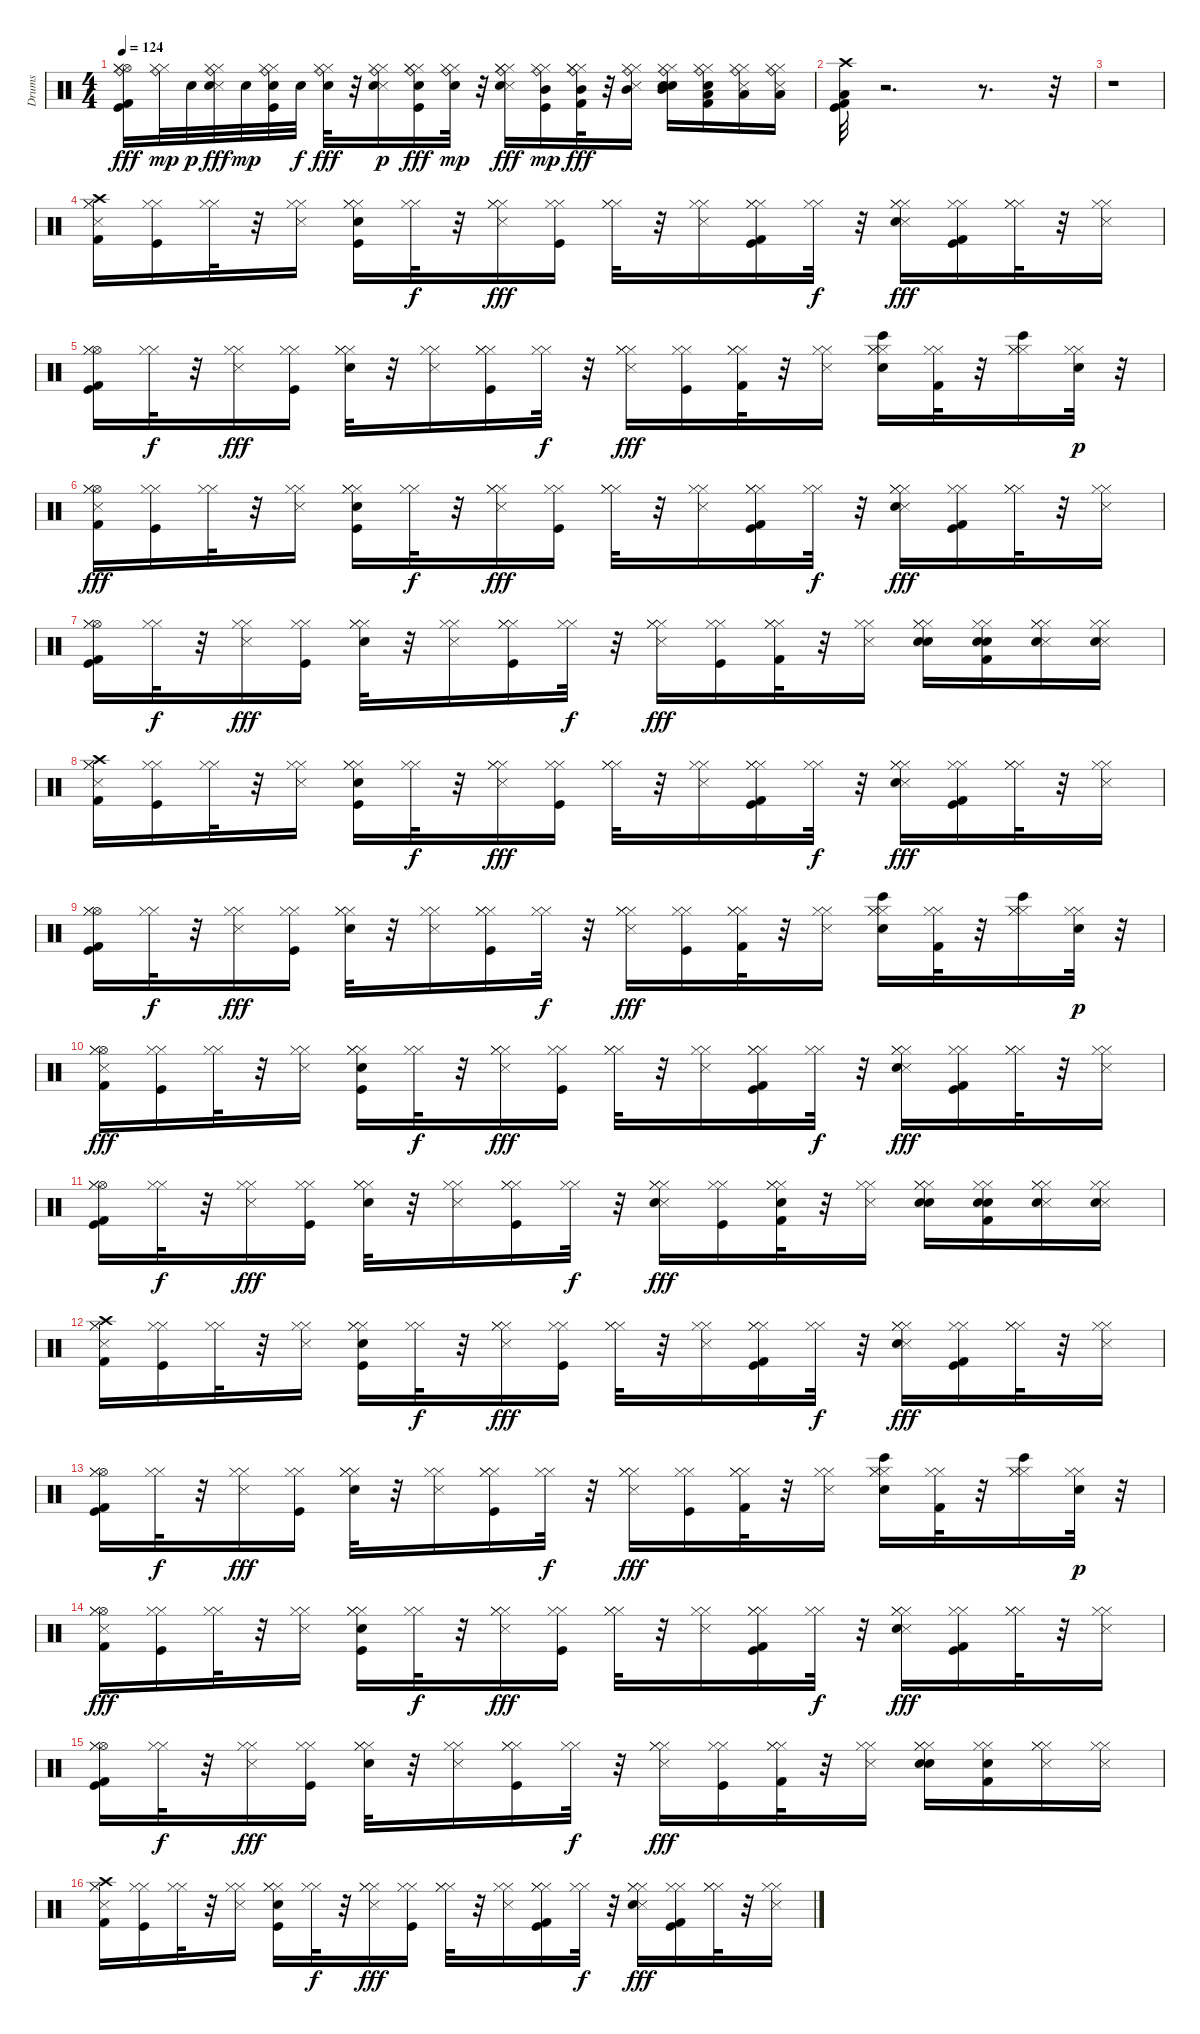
\track ("Drums" "Drums") {instrument percussion}
\staff {score}
\articulation defaults
\ts (4 4)
\tempo 124
\clef neutral
\ks c
("Kick (hit)" "Ride (bell)" "Kick (hit) 2" "Hi-Hat (open)" "Hi-Hat (closed)" "Hi-Hat (closed)").16{dy fff} ("Ride (bell)" "Hi-Hat (closed)" "Hi-Hat (closed)").32{dy mp} "Electric Snare (hit)".32{dy p} ("Metronome (hit)" "Electric Snare (hit)" "Ride (bell)" "Hi-Hat (closed)" "Hi-Hat (closed)").32{dy fff} "Electric Snare (hit)".32{dy mp} ("Kick (hit)" "Electric Snare (hit)" "Ride (bell)" "Hi-Hat (closed)" "Hi-Hat (closed)").32 "Electric Snare (hit)".32{dy f} ("Electric Snare (hit)" "Ride (bell)" "Hi-Hat (closed)" "Hi-Hat (closed)").32{dy fff} r.32 ("Metronome (hit)" "Electric Snare (hit)" "Ride (bell)" "Hi-Hat (closed)" "Hi-Hat (closed)").16{dy p} ("Kick (hit)" "Electric Snare (hit)" "Hi-Hat (closed)" "Ride (bell)" "Hi-Hat (closed)" "Hi-Hat (closed)").16{dy fff} ("Electric Snare (hit)" "Ride (bell)" "Hi-Hat (closed)" "Hi-Hat (closed)").32{dy mp} r.32 ("Metronome (hit)" "Electric Snare (hit)" "Hi-Hat (closed)" "Ride (bell)" "Hi-Hat (closed)" "Hi-Hat (closed)").16{dy fff} ("Kick (hit)" "Mid Tom (hit)" "Ride (bell)" "Hi-Hat (closed)" "Hi-Hat (closed)").16{dy mp} ("Mid Tom (hit)" "Hi-Hat (closed)" "Ride (bell)" "Kick (hit) 2" "Hi-Hat (closed)" "Hi-Hat (closed)").32{dy fff} r.32 ("Metronome (hit)" "Mid Tom (hit)" "Ride (bell)" "Hi-Hat (closed)" "Hi-Hat (closed)").16 ("Hand Clap (hit)" "Mid Tom (hit)" "Hi-Hat (closed)" "Ride (bell)" "Electric Snare (hit)" "Hi-Hat (closed)").16 ("Hand Clap (hit)" "Low Tom (hit)" "Ride (bell)" "Kick (hit) 2" "Hi-Hat (closed)" "Hi-Hat (closed)").16 ("Snare (side stick) 3" "Low Tom (hit)" "Ride (bell)" "Hi-Hat (closed)" "Hi-Hat (closed)").16 ("Snare (side stick) 3" "Low Tom (hit)" "Ride (bell)" "Hi-Hat (closed)" "Hi-Hat (closed)").16 |
("Kick (hit)" "Crash high (hit)" "Kick (hit) 2" "Low Tom (hit)").32 r.2{d} r.8{d} r.32 |
r.1 |
("Metronome (hit)" "Crash high (hit)" "Kick (hit) 2" "Hi-Hat (closed)" "Hi-Hat (closed)").16 ("Kick (hit)" "Hi-Hat (closed)" "Hi-Hat (closed)").16 ("Hi-Hat (closed)" "Hi-Hat (closed)").32 r.32 ("Metronome (hit)" "Hi-Hat (closed)" "Hi-Hat (closed)").16 ("Kick (hit)" "Hi-Hat (closed)" "Electric Snare (hit)" "Hi-Hat (closed)" "Hi-Hat (closed)").16 ("Hi-Hat (closed)" "Hi-Hat (closed)").32{dy f} r.32 ("Metronome (hit)" "Hi-Hat (closed)" "Hi-Hat (closed)" "Hi-Hat (closed)").16{dy fff} ("Kick (hit)" "Hi-Hat (closed)" "Hi-Hat (closed)").16 ("Hi-Hat (closed)" "Hi-Hat (closed)" "Hi-Hat (closed)").32 r.32 ("Metronome (hit)" "Hi-Hat (closed)" "Hi-Hat (closed)").16 ("Kick (hit)" "Hi-Hat (closed)" "Kick (hit) 2" "Hi-Hat (closed)" "Hi-Hat (closed)").16 ("Hi-Hat (closed)" "Hi-Hat (closed)").32{dy f} r.32 ("Metronome (hit)" "Hi-Hat (closed)" "Electric Snare (hit)" "Hi-Hat (closed)" "Hi-Hat (closed)").16{dy fff} ("Kick (hit)" "Kick (hit) 2" "Hi-Hat (closed)" "Hi-Hat (closed)").16 ("Hi-Hat (closed)" "Hi-Hat (closed)" "Hi-Hat (closed)").32 r.32 ("Metronome (hit)" "Hi-Hat (closed)" "Hi-Hat (closed)").16 |
("Kick (hit)" "Hi-Hat (open)" "Kick (hit) 2" "Hi-Hat (closed)" "Hi-Hat (closed)").16 ("Hi-Hat (closed)" "Hi-Hat (closed)").32{dy f} r.32 ("Metronome (hit)" "Hi-Hat (closed)" "Hi-Hat (closed)").16{dy fff} ("Kick (hit)" "Hi-Hat (closed)" "Hi-Hat (closed)").16 ("Electric Snare (hit)" "Hi-Hat (closed)" "Hi-Hat (closed)" "Hi-Hat (closed)").32 r.32 ("Metronome (hit)" "Hi-Hat (closed)" "Hi-Hat (closed)").16 ("Kick (hit)" "Hi-Hat (closed)" "Hi-Hat (closed)" "Hi-Hat (closed)").16 ("Hi-Hat (closed)" "Hi-Hat (closed)").32{dy f} r.32 ("Metronome (hit)" "Hi-Hat (closed)" "Hi-Hat (closed)" "Hi-Hat (closed)").16{dy fff} ("Kick (hit)" "Hi-Hat (closed)" "Hi-Hat (closed)").16 ("Hi-Hat (closed)" "Kick (hit) 2" "Hi-Hat (closed)" "Hi-Hat (closed)").32 r.32 ("Metronome (hit)" "Hi-Hat (closed)" "Hi-Hat (closed)").16 ("Bongo High (hit)" "Electric Snare (hit)" "Hi-Hat (closed)" "Hi-Hat (closed)" "Hi-Hat (closed)").16 ("Kick (hit) 2" "Hi-Hat (closed)" "Hi-Hat (closed)").32 r.32 ("Bongo High (hit)" "Hi-Hat (closed)" "Hi-Hat (closed)" "Hi-Hat (closed)").16 ("Hi-Hat (closed)" "Hi-Hat (closed)" "Electric Snare (hit)").32{dy p} r.32 |
("Metronome (hit)" "Kick (hit) 2" "Hi-Hat (open)" "Hi-Hat (closed)" "Hi-Hat (closed)").16{dy fff} ("Kick (hit)" "Hi-Hat (closed)" "Hi-Hat (closed)").16 ("Hi-Hat (closed)" "Hi-Hat (closed)").32 r.32 ("Metronome (hit)" "Hi-Hat (closed)" "Hi-Hat (closed)").16 ("Kick (hit)" "Electric Snare (hit)" "Hi-Hat (closed)" "Hi-Hat (closed)" "Hi-Hat (closed)").16 ("Hi-Hat (closed)" "Hi-Hat (closed)").32{dy f} r.32 ("Metronome (hit)" "Hi-Hat (closed)" "Hi-Hat (closed)" "Hi-Hat (closed)").16{dy fff} ("Kick (hit)" "Hi-Hat (closed)" "Hi-Hat (closed)").16 ("Hi-Hat (closed)" "Hi-Hat (closed)" "Hi-Hat (closed)").32 r.32 ("Metronome (hit)" "Hi-Hat (closed)" "Hi-Hat (closed)").16 ("Kick (hit)" "Kick (hit) 2" "Hi-Hat (closed)" "Hi-Hat (closed)" "Hi-Hat (closed)").16 ("Hi-Hat (closed)" "Hi-Hat (closed)").32{dy f} r.32 ("Metronome (hit)" "Electric Snare (hit)" "Hi-Hat (closed)" "Hi-Hat (closed)" "Hi-Hat (closed)").16{dy fff} ("Kick (hit)" "Kick (hit) 2" "Hi-Hat (closed)" "Hi-Hat (closed)").16 ("Hi-Hat (closed)" "Hi-Hat (closed)" "Hi-Hat (closed)").32 r.32 ("Metronome (hit)" "Hi-Hat (closed)" "Hi-Hat (closed)").16 |
("Kick (hit)" "Kick (hit) 2" "Hi-Hat (open)" "Hi-Hat (closed)" "Hi-Hat (closed)").16 ("Hi-Hat (closed)" "Hi-Hat (closed)").32{dy f} r.32 ("Metronome (hit)" "Hi-Hat (closed)" "Hi-Hat (closed)").16{dy fff} ("Kick (hit)" "Hi-Hat (closed)" "Hi-Hat (closed)").16 ("Hi-Hat (closed)" "Electric Snare (hit)" "Hi-Hat (closed)" "Hi-Hat (closed)").32 r.32 ("Metronome (hit)" "Hi-Hat (closed)" "Hi-Hat (closed)").16 ("Kick (hit)" "Hi-Hat (closed)" "Hi-Hat (closed)" "Hi-Hat (closed)").16 ("Hi-Hat (closed)" "Hi-Hat (closed)").32{dy f} r.32 ("Metronome (hit)" "Hi-Hat (closed)" "Hi-Hat (closed)" "Hi-Hat (closed)").16{dy fff} ("Kick (hit)" "Hi-Hat (closed)" "Hi-Hat (closed)").16 ("Kick (hit) 2" "Hi-Hat (closed)" "Hi-Hat (closed)" "Hi-Hat (closed)").32 r.32 ("Metronome (hit)" "Hi-Hat (closed)" "Hi-Hat (closed)").16 ("Hand Clap (hit)" "Hi-Hat (closed)" "Electric Snare (hit)" "Hi-Hat (closed)" "Hi-Hat (closed)").16 ("Hand Clap (hit)" "Electric Snare (hit)" "Kick (hit) 2" "Hi-Hat (closed)" "Hi-Hat (closed)").16 ("Snare (side stick) 3" "Electric Snare (hit)" "Hi-Hat (closed)" "Hi-Hat (closed)" "Hi-Hat (closed)").16 ("Snare (side stick) 3" "Electric Snare (hit)" "Hi-Hat (closed)" "Hi-Hat (closed)").16 |
("Metronome (hit)" "Crash high (hit)" "Kick (hit) 2" "Hi-Hat (closed)" "Hi-Hat (closed)").16 ("Kick (hit)" "Hi-Hat (closed)" "Hi-Hat (closed)").16 ("Hi-Hat (closed)" "Hi-Hat (closed)").32 r.32 ("Metronome (hit)" "Hi-Hat (closed)" "Hi-Hat (closed)").16 ("Kick (hit)" "Hi-Hat (closed)" "Electric Snare (hit)" "Hi-Hat (closed)" "Hi-Hat (closed)").16 ("Hi-Hat (closed)" "Hi-Hat (closed)").32{dy f} r.32 ("Metronome (hit)" "Hi-Hat (closed)" "Hi-Hat (closed)" "Hi-Hat (closed)").16{dy fff} ("Kick (hit)" "Hi-Hat (closed)" "Hi-Hat (closed)").16 ("Hi-Hat (closed)" "Hi-Hat (closed)" "Hi-Hat (closed)").32 r.32 ("Metronome (hit)" "Hi-Hat (closed)" "Hi-Hat (closed)").16 ("Kick (hit)" "Hi-Hat (closed)" "Kick (hit) 2" "Hi-Hat (closed)" "Hi-Hat (closed)").16 ("Hi-Hat (closed)" "Hi-Hat (closed)").32{dy f} r.32 ("Metronome (hit)" "Hi-Hat (closed)" "Electric Snare (hit)" "Hi-Hat (closed)" "Hi-Hat (closed)").16{dy fff} ("Kick (hit)" "Kick (hit) 2" "Hi-Hat (closed)" "Hi-Hat (closed)").16 ("Hi-Hat (closed)" "Hi-Hat (closed)" "Hi-Hat (closed)").32 r.32 ("Metronome (hit)" "Hi-Hat (closed)" "Hi-Hat (closed)").16 |
("Kick (hit)" "Hi-Hat (open)" "Kick (hit) 2" "Hi-Hat (closed)" "Hi-Hat (closed)").16 ("Hi-Hat (closed)" "Hi-Hat (closed)").32{dy f} r.32 ("Metronome (hit)" "Hi-Hat (closed)" "Hi-Hat (closed)").16{dy fff} ("Kick (hit)" "Hi-Hat (closed)" "Hi-Hat (closed)").16 ("Electric Snare (hit)" "Hi-Hat (closed)" "Hi-Hat (closed)" "Hi-Hat (closed)").32 r.32 ("Metronome (hit)" "Hi-Hat (closed)" "Hi-Hat (closed)").16 ("Kick (hit)" "Hi-Hat (closed)" "Hi-Hat (closed)" "Hi-Hat (closed)").16 ("Hi-Hat (closed)" "Hi-Hat (closed)").32{dy f} r.32 ("Metronome (hit)" "Hi-Hat (closed)" "Hi-Hat (closed)" "Hi-Hat (closed)").16{dy fff} ("Kick (hit)" "Hi-Hat (closed)" "Hi-Hat (closed)").16 ("Hi-Hat (closed)" "Kick (hit) 2" "Hi-Hat (closed)" "Hi-Hat (closed)").32 r.32 ("Metronome (hit)" "Hi-Hat (closed)" "Hi-Hat (closed)").16 ("Bongo High (hit)" "Electric Snare (hit)" "Hi-Hat (closed)" "Hi-Hat (closed)" "Hi-Hat (closed)").16 ("Kick (hit) 2" "Hi-Hat (closed)" "Hi-Hat (closed)").32 r.32 ("Bongo High (hit)" "Hi-Hat (closed)" "Hi-Hat (closed)" "Hi-Hat (closed)").16 ("Hi-Hat (closed)" "Hi-Hat (closed)" "Electric Snare (hit)").32{dy p} r.32 |
("Metronome (hit)" "Kick (hit) 2" "Hi-Hat (open)" "Hi-Hat (closed)" "Hi-Hat (closed)").16{dy fff} ("Kick (hit)" "Hi-Hat (closed)" "Hi-Hat (closed)").16 ("Hi-Hat (closed)" "Hi-Hat (closed)").32 r.32 ("Metronome (hit)" "Hi-Hat (closed)" "Hi-Hat (closed)").16 ("Kick (hit)" "Electric Snare (hit)" "Hi-Hat (closed)" "Hi-Hat (closed)" "Hi-Hat (closed)").16 ("Hi-Hat (closed)" "Hi-Hat (closed)").32{dy f} r.32 ("Metronome (hit)" "Hi-Hat (closed)" "Hi-Hat (closed)" "Hi-Hat (closed)").16{dy fff} ("Kick (hit)" "Hi-Hat (closed)" "Hi-Hat (closed)").16 ("Hi-Hat (closed)" "Hi-Hat (closed)" "Hi-Hat (closed)").32 r.32 ("Metronome (hit)" "Hi-Hat (closed)" "Hi-Hat (closed)").16 ("Kick (hit)" "Kick (hit) 2" "Hi-Hat (closed)" "Hi-Hat (closed)" "Hi-Hat (closed)").16 ("Hi-Hat (closed)" "Hi-Hat (closed)").32{dy f} r.32 ("Metronome (hit)" "Electric Snare (hit)" "Hi-Hat (closed)" "Hi-Hat (closed)" "Hi-Hat (closed)").16{dy fff} ("Kick (hit)" "Kick (hit) 2" "Hi-Hat (closed)" "Hi-Hat (closed)").16 ("Hi-Hat (closed)" "Hi-Hat (closed)" "Hi-Hat (closed)").32 r.32 ("Metronome (hit)" "Hi-Hat (closed)" "Hi-Hat (closed)").16 |
("Kick (hit)" "Kick (hit) 2" "Hi-Hat (open)" "Hi-Hat (closed)" "Hi-Hat (closed)").16 ("Hi-Hat (closed)" "Hi-Hat (closed)").32{dy f} r.32 ("Metronome (hit)" "Hi-Hat (closed)" "Hi-Hat (closed)").16{dy fff} ("Kick (hit)" "Hi-Hat (closed)" "Hi-Hat (closed)").16 ("Hi-Hat (closed)" "Electric Snare (hit)" "Hi-Hat (closed)" "Hi-Hat (closed)").32 r.32 ("Metronome (hit)" "Hi-Hat (closed)" "Hi-Hat (closed)").16 ("Kick (hit)" "Hi-Hat (closed)" "Hi-Hat (closed)" "Hi-Hat (closed)").16 ("Hi-Hat (closed)" "Hi-Hat (closed)").32{dy f} r.32 ("Metronome (hit)" "Electric Snare (hit)" "Hi-Hat (closed)" "Hi-Hat (closed)" "Hi-Hat (closed)").16{dy fff} ("Kick (hit)" "Hi-Hat (closed)" "Hi-Hat (closed)").16 ("Electric Snare (hit)" "Kick (hit) 2" "Hi-Hat (closed)" "Hi-Hat (closed)" "Hi-Hat (closed)").32 r.32 ("Metronome (hit)" "Hi-Hat (closed)" "Hi-Hat (closed)").16 ("Hand Clap (hit)" "Hi-Hat (closed)" "Electric Snare (hit)" "Hi-Hat (closed)" "Hi-Hat (closed)").16 ("Hand Clap (hit)" "Electric Snare (hit)" "Kick (hit) 2" "Hi-Hat (closed)" "Hi-Hat (closed)").16 ("Snare (side stick) 3" "Electric Snare (hit)" "Hi-Hat (closed)" "Hi-Hat (closed)" "Hi-Hat (closed)").16 ("Snare (side stick) 3" "Electric Snare (hit)" "Hi-Hat (closed)" "Hi-Hat (closed)").16 |
("Metronome (hit)" "Crash high (hit)" "Kick (hit) 2" "Hi-Hat (closed)" "Hi-Hat (closed)").16 ("Kick (hit)" "Hi-Hat (closed)" "Hi-Hat (closed)").16 ("Hi-Hat (closed)" "Hi-Hat (closed)").32 r.32 ("Metronome (hit)" "Hi-Hat (closed)" "Hi-Hat (closed)").16 ("Kick (hit)" "Hi-Hat (closed)" "Electric Snare (hit)" "Hi-Hat (closed)" "Hi-Hat (closed)").16 ("Hi-Hat (closed)" "Hi-Hat (closed)").32{dy f} r.32 ("Metronome (hit)" "Hi-Hat (closed)" "Hi-Hat (closed)" "Hi-Hat (closed)").16{dy fff} ("Kick (hit)" "Hi-Hat (closed)" "Hi-Hat (closed)").16 ("Hi-Hat (closed)" "Hi-Hat (closed)" "Hi-Hat (closed)").32 r.32 ("Metronome (hit)" "Hi-Hat (closed)" "Hi-Hat (closed)").16 ("Kick (hit)" "Hi-Hat (closed)" "Kick (hit) 2" "Hi-Hat (closed)" "Hi-Hat (closed)").16 ("Hi-Hat (closed)" "Hi-Hat (closed)").32{dy f} r.32 ("Metronome (hit)" "Hi-Hat (closed)" "Electric Snare (hit)" "Hi-Hat (closed)" "Hi-Hat (closed)").16{dy fff} ("Kick (hit)" "Kick (hit) 2" "Hi-Hat (closed)" "Hi-Hat (closed)").16 ("Hi-Hat (closed)" "Hi-Hat (closed)" "Hi-Hat (closed)").32 r.32 ("Metronome (hit)" "Hi-Hat (closed)" "Hi-Hat (closed)").16 |
("Kick (hit)" "Hi-Hat (open)" "Kick (hit) 2" "Hi-Hat (closed)" "Hi-Hat (closed)").16 ("Hi-Hat (closed)" "Hi-Hat (closed)").32{dy f} r.32 ("Metronome (hit)" "Hi-Hat (closed)" "Hi-Hat (closed)").16{dy fff} ("Kick (hit)" "Hi-Hat (closed)" "Hi-Hat (closed)").16 ("Electric Snare (hit)" "Hi-Hat (closed)" "Hi-Hat (closed)" "Hi-Hat (closed)").32 r.32 ("Metronome (hit)" "Hi-Hat (closed)" "Hi-Hat (closed)").16 ("Kick (hit)" "Hi-Hat (closed)" "Hi-Hat (closed)" "Hi-Hat (closed)").16 ("Hi-Hat (closed)" "Hi-Hat (closed)").32{dy f} r.32 ("Metronome (hit)" "Hi-Hat (closed)" "Hi-Hat (closed)" "Hi-Hat (closed)").16{dy fff} ("Kick (hit)" "Hi-Hat (closed)" "Hi-Hat (closed)").16 ("Hi-Hat (closed)" "Kick (hit) 2" "Hi-Hat (closed)" "Hi-Hat (closed)").32 r.32 ("Metronome (hit)" "Hi-Hat (closed)" "Hi-Hat (closed)").16 ("Bongo High (hit)" "Electric Snare (hit)" "Hi-Hat (closed)" "Hi-Hat (closed)" "Hi-Hat (closed)").16 ("Kick (hit) 2" "Hi-Hat (closed)" "Hi-Hat (closed)").32 r.32 ("Bongo High (hit)" "Hi-Hat (closed)" "Hi-Hat (closed)" "Hi-Hat (closed)").16 ("Hi-Hat (closed)" "Hi-Hat (closed)" "Electric Snare (hit)").32{dy p} r.32 |
("Metronome (hit)" "Kick (hit) 2" "Hi-Hat (open)" "Hi-Hat (closed)" "Hi-Hat (closed)").16{dy fff} ("Kick (hit)" "Hi-Hat (closed)" "Hi-Hat (closed)").16 ("Hi-Hat (closed)" "Hi-Hat (closed)").32 r.32 ("Metronome (hit)" "Hi-Hat (closed)" "Hi-Hat (closed)").16 ("Kick (hit)" "Electric Snare (hit)" "Hi-Hat (closed)" "Hi-Hat (closed)" "Hi-Hat (closed)").16 ("Hi-Hat (closed)" "Hi-Hat (closed)").32{dy f} r.32 ("Metronome (hit)" "Hi-Hat (closed)" "Hi-Hat (closed)" "Hi-Hat (closed)").16{dy fff} ("Kick (hit)" "Hi-Hat (closed)" "Hi-Hat (closed)").16 ("Hi-Hat (closed)" "Hi-Hat (closed)" "Hi-Hat (closed)").32 r.32 ("Metronome (hit)" "Hi-Hat (closed)" "Hi-Hat (closed)").16 ("Kick (hit)" "Kick (hit) 2" "Hi-Hat (closed)" "Hi-Hat (closed)" "Hi-Hat (closed)").16 ("Hi-Hat (closed)" "Hi-Hat (closed)").32{dy f} r.32 ("Metronome (hit)" "Electric Snare (hit)" "Hi-Hat (closed)" "Hi-Hat (closed)" "Hi-Hat (closed)").16{dy fff} ("Kick (hit)" "Kick (hit) 2" "Hi-Hat (closed)" "Hi-Hat (closed)").16 ("Hi-Hat (closed)" "Hi-Hat (closed)" "Hi-Hat (closed)").32 r.32 ("Metronome (hit)" "Hi-Hat (closed)" "Hi-Hat (closed)").16 |
("Kick (hit)" "Hi-Hat (open)" "Kick (hit) 2" "Hi-Hat (closed)" "Hi-Hat (closed)").16 ("Hi-Hat (closed)" "Hi-Hat (closed)").32{dy f} r.32 ("Metronome (hit)" "Hi-Hat (closed)" "Hi-Hat (closed)").16{dy fff} ("Kick (hit)" "Hi-Hat (closed)" "Hi-Hat (closed)").16 ("Hi-Hat (closed)" "Electric Snare (hit)" "Hi-Hat (closed)" "Hi-Hat (closed)").32 r.32 ("Metronome (hit)" "Hi-Hat (closed)" "Hi-Hat (closed)").16 ("Kick (hit)" "Hi-Hat (closed)" "Hi-Hat (closed)" "Hi-Hat (closed)").16 ("Hi-Hat (closed)" "Hi-Hat (closed)").32{dy f} r.32 ("Metronome (hit)" "Hi-Hat (closed)" "Hi-Hat (closed)" "Hi-Hat (closed)").16{dy fff} ("Kick (hit)" "Hi-Hat (closed)" "Hi-Hat (closed)").16 ("Kick (hit) 2" "Hi-Hat (closed)" "Hi-Hat (closed)" "Hi-Hat (closed)").32 r.32 ("Metronome (hit)" "Hi-Hat (closed)" "Hi-Hat (closed)").16 ("Hand Clap (hit)" "Hi-Hat (closed)" "Electric Snare (hit)" "Hi-Hat (closed)" "Hi-Hat (closed)").16 ("Hand Clap (hit)" "Kick (hit) 2" "Hi-Hat (closed)" "Hi-Hat (closed)").16 ("Snare (side stick) 3" "Hi-Hat (closed)" "Hi-Hat (closed)" "Hi-Hat (closed)").16 ("Snare (side stick) 3" "Hi-Hat (closed)" "Hi-Hat (closed)").16 |
("Metronome (hit)" "Crash high (hit)" "Kick (hit) 2" "Hi-Hat (closed)" "Hi-Hat (closed)").16 ("Kick (hit)" "Hi-Hat (closed)" "Hi-Hat (closed)").16 ("Hi-Hat (closed)" "Hi-Hat (closed)").32 r.32 ("Metronome (hit)" "Hi-Hat (closed)" "Hi-Hat (closed)").16 ("Kick (hit)" "Hi-Hat (closed)" "Electric Snare (hit)" "Hi-Hat (closed)" "Hi-Hat (closed)").16 ("Hi-Hat (closed)" "Hi-Hat (closed)").32{dy f} r.32 ("Metronome (hit)" "Hi-Hat (closed)" "Hi-Hat (closed)" "Hi-Hat (closed)").16{dy fff} ("Kick (hit)" "Hi-Hat (closed)" "Hi-Hat (closed)").16 ("Hi-Hat (closed)" "Hi-Hat (closed)" "Hi-Hat (closed)").32 r.32 ("Metronome (hit)" "Hi-Hat (closed)" "Hi-Hat (closed)").16 ("Kick (hit)" "Hi-Hat (closed)" "Kick (hit) 2" "Hi-Hat (closed)" "Hi-Hat (closed)").16 ("Hi-Hat (closed)" "Hi-Hat (closed)").32{dy f} r.32 ("Metronome (hit)" "Hi-Hat (closed)" "Electric Snare (hit)" "Hi-Hat (closed)" "Hi-Hat (closed)").16{dy fff} ("Kick (hit)" "Kick (hit) 2" "Hi-Hat (closed)" "Hi-Hat (closed)").16 ("Hi-Hat (closed)" "Hi-Hat (closed)" "Hi-Hat (closed)").32 r.32 ("Metronome (hit)" "Hi-Hat (closed)" "Hi-Hat (closed)").16
